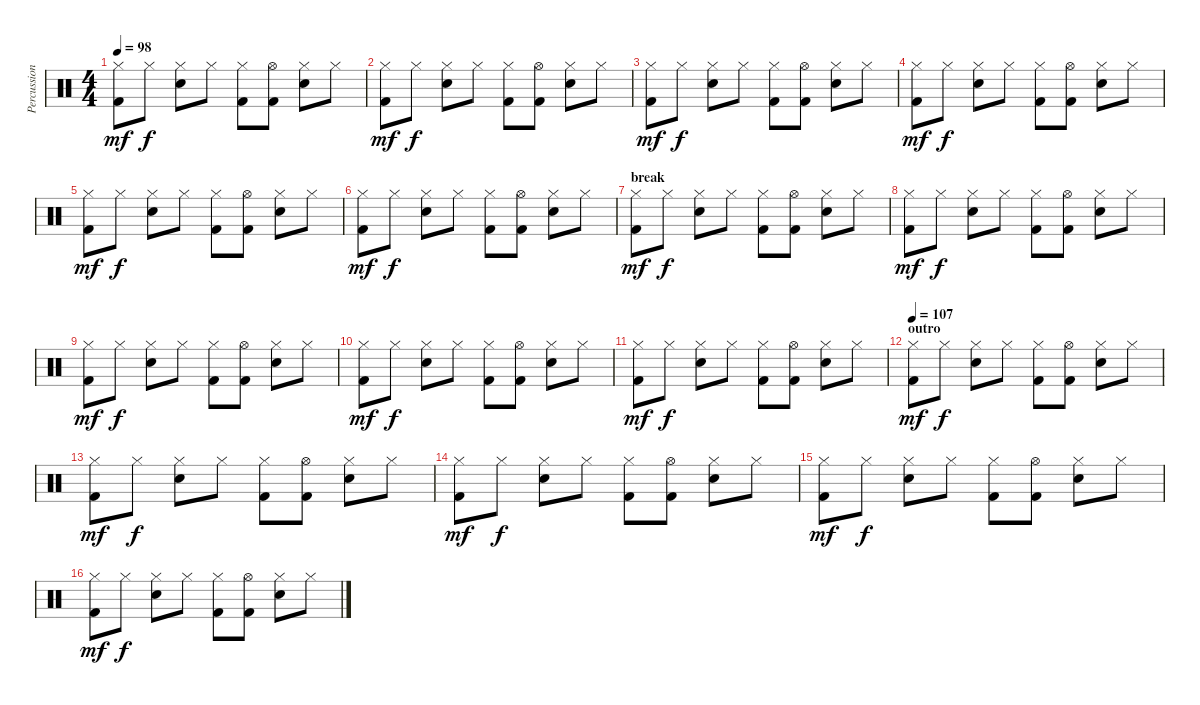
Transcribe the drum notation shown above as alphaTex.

\track ("Percussion" "Percussion") {instrument percussion}
\staff {score}
\articulation defaults
\ts (4 4)
\tempo 98
\clef neutral
\ks c
("Hi-Hat (closed)" "Kick (hit) 2").8{dy mf} "Hi-Hat (closed)".8{dy f} ("Hi-Hat (closed)" "Snare (hit) 2").8 "Hi-Hat (closed)".8 ("Hi-Hat (closed)" "Kick (hit) 2").8 ("Hi-Hat (open)" "Kick (hit) 2").8 ("Hi-Hat (closed)" "Snare (hit) 2").8 "Hi-Hat (closed)".8 |
("Hi-Hat (closed)" "Kick (hit) 2").8{dy mf} "Hi-Hat (closed)".8{dy f} ("Hi-Hat (closed)" "Snare (hit) 2").8 "Hi-Hat (closed)".8 ("Hi-Hat (closed)" "Kick (hit) 2").8 ("Hi-Hat (open)" "Kick (hit) 2").8 ("Hi-Hat (closed)" "Snare (hit) 2").8 "Hi-Hat (closed)".8 |
("Hi-Hat (closed)" "Kick (hit) 2").8{dy mf} "Hi-Hat (closed)".8{dy f} ("Hi-Hat (closed)" "Snare (hit) 2").8 "Hi-Hat (closed)".8 ("Hi-Hat (closed)" "Kick (hit) 2").8 ("Hi-Hat (open)" "Kick (hit) 2").8 ("Hi-Hat (closed)" "Snare (hit) 2").8 "Hi-Hat (closed)".8 |
("Hi-Hat (closed)" "Kick (hit) 2").8{dy mf} "Hi-Hat (closed)".8{dy f} ("Hi-Hat (closed)" "Snare (hit) 2").8 "Hi-Hat (closed)".8 ("Hi-Hat (closed)" "Kick (hit) 2").8 ("Hi-Hat (open)" "Kick (hit) 2").8 ("Hi-Hat (closed)" "Snare (hit) 2").8 "Hi-Hat (closed)".8 |
("Hi-Hat (closed)" "Kick (hit) 2").8{dy mf} "Hi-Hat (closed)".8{dy f} ("Hi-Hat (closed)" "Snare (hit) 2").8 "Hi-Hat (closed)".8 ("Hi-Hat (closed)" "Kick (hit) 2").8 ("Hi-Hat (open)" "Kick (hit) 2").8 ("Hi-Hat (closed)" "Snare (hit) 2").8 "Hi-Hat (closed)".8 |
("Hi-Hat (closed)" "Kick (hit) 2").8{dy mf} "Hi-Hat (closed)".8{dy f} ("Hi-Hat (closed)" "Snare (hit) 2").8 "Hi-Hat (closed)".8 ("Hi-Hat (closed)" "Kick (hit) 2").8 ("Hi-Hat (open)" "Kick (hit) 2").8 ("Hi-Hat (closed)" "Snare (hit) 2").8 "Hi-Hat (closed)".8 |
\section ("" "break")
("Hi-Hat (closed)" "Kick (hit) 2").8{dy mf} "Hi-Hat (closed)".8{dy f} ("Hi-Hat (closed)" "Snare (hit) 2").8 "Hi-Hat (closed)".8 ("Hi-Hat (closed)" "Kick (hit) 2").8 ("Hi-Hat (open)" "Kick (hit) 2").8 ("Hi-Hat (closed)" "Snare (hit) 2").8 "Hi-Hat (closed)".8 |
("Hi-Hat (closed)" "Kick (hit) 2").8{dy mf} "Hi-Hat (closed)".8{dy f} ("Hi-Hat (closed)" "Snare (hit) 2").8 "Hi-Hat (closed)".8 ("Hi-Hat (closed)" "Kick (hit) 2").8 ("Hi-Hat (open)" "Kick (hit) 2").8 ("Hi-Hat (closed)" "Snare (hit) 2").8 "Hi-Hat (closed)".8 |
("Hi-Hat (closed)" "Kick (hit) 2").8{dy mf} "Hi-Hat (closed)".8{dy f} ("Hi-Hat (closed)" "Snare (hit) 2").8 "Hi-Hat (closed)".8 ("Hi-Hat (closed)" "Kick (hit) 2").8 ("Hi-Hat (open)" "Kick (hit) 2").8 ("Hi-Hat (closed)" "Snare (hit) 2").8 "Hi-Hat (closed)".8 |
("Hi-Hat (closed)" "Kick (hit) 2").8{dy mf} "Hi-Hat (closed)".8{dy f} ("Hi-Hat (closed)" "Snare (hit) 2").8 "Hi-Hat (closed)".8 ("Hi-Hat (closed)" "Kick (hit) 2").8 ("Hi-Hat (open)" "Kick (hit) 2").8 ("Hi-Hat (closed)" "Snare (hit) 2").8 "Hi-Hat (closed)".8 |
("Hi-Hat (closed)" "Kick (hit) 2").8{dy mf} "Hi-Hat (closed)".8{dy f} ("Hi-Hat (closed)" "Snare (hit) 2").8 "Hi-Hat (closed)".8 ("Hi-Hat (closed)" "Kick (hit) 2").8 ("Hi-Hat (open)" "Kick (hit) 2").8 ("Hi-Hat (closed)" "Snare (hit) 2").8 "Hi-Hat (closed)".8 |
\section ("" "outro")
\tempo 107
("Hi-Hat (closed)" "Kick (hit) 2").8{dy mf} "Hi-Hat (closed)".8{dy f} ("Hi-Hat (closed)" "Snare (hit) 2").8 "Hi-Hat (closed)".8 ("Hi-Hat (closed)" "Kick (hit) 2").8 ("Hi-Hat (open)" "Kick (hit) 2").8 ("Hi-Hat (closed)" "Snare (hit) 2").8 "Hi-Hat (closed)".8 |
("Hi-Hat (closed)" "Kick (hit) 2").8{dy mf} "Hi-Hat (closed)".8{dy f} ("Hi-Hat (closed)" "Snare (hit) 2").8 "Hi-Hat (closed)".8 ("Hi-Hat (closed)" "Kick (hit) 2").8 ("Hi-Hat (open)" "Kick (hit) 2").8 ("Hi-Hat (closed)" "Snare (hit) 2").8 "Hi-Hat (closed)".8 |
("Hi-Hat (closed)" "Kick (hit) 2").8{dy mf} "Hi-Hat (closed)".8{dy f} ("Hi-Hat (closed)" "Snare (hit) 2").8 "Hi-Hat (closed)".8 ("Hi-Hat (closed)" "Kick (hit) 2").8 ("Hi-Hat (open)" "Kick (hit) 2").8 ("Hi-Hat (closed)" "Snare (hit) 2").8 "Hi-Hat (closed)".8 |
("Hi-Hat (closed)" "Kick (hit) 2").8{dy mf} "Hi-Hat (closed)".8{dy f} ("Hi-Hat (closed)" "Snare (hit) 2").8 "Hi-Hat (closed)".8 ("Hi-Hat (closed)" "Kick (hit) 2").8 ("Hi-Hat (open)" "Kick (hit) 2").8 ("Hi-Hat (closed)" "Snare (hit) 2").8 "Hi-Hat (closed)".8 |
("Hi-Hat (closed)" "Kick (hit) 2").8{dy mf} "Hi-Hat (closed)".8{dy f} ("Hi-Hat (closed)" "Snare (hit) 2").8 "Hi-Hat (closed)".8 ("Hi-Hat (closed)" "Kick (hit) 2").8 ("Hi-Hat (open)" "Kick (hit) 2").8 ("Hi-Hat (closed)" "Snare (hit) 2").8 "Hi-Hat (closed)".8
